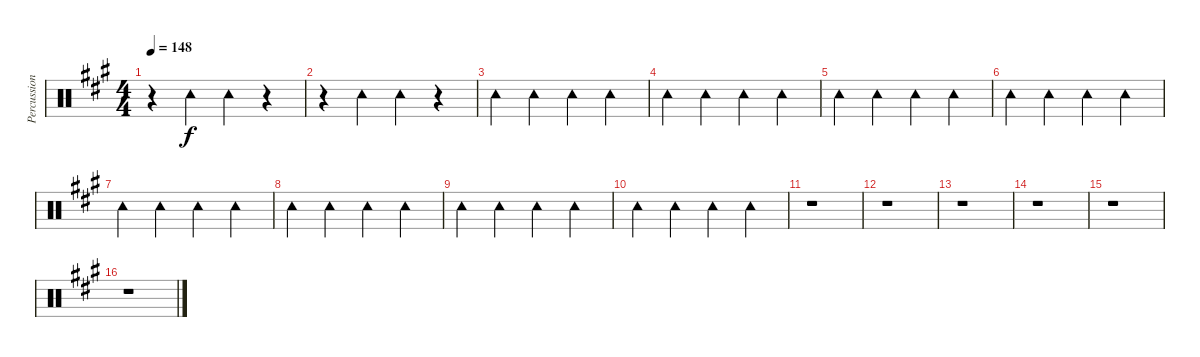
\track ("Percussion" "Percussion") {instrument percussion}
\staff {score}
\articulation defaults
\ts (4 4)
\tempo 148
\clef neutral
\ks a
r.4{dy f} "Tambourine (hit)".4 "Tambourine (hit)".4 r.4 |
r.4 "Tambourine (hit)".4 "Tambourine (hit)".4 r.4 |
"Tambourine (hit)".4 "Tambourine (hit)".4 "Tambourine (hit)".4 "Tambourine (hit)".4 |
"Tambourine (hit)".4 "Tambourine (hit)".4 "Tambourine (hit)".4 "Tambourine (hit)".4 |
"Tambourine (hit)".4 "Tambourine (hit)".4 "Tambourine (hit)".4 "Tambourine (hit)".4 |
"Tambourine (hit)".4 "Tambourine (hit)".4 "Tambourine (hit)".4 "Tambourine (hit)".4 |
"Tambourine (hit)".4 "Tambourine (hit)".4 "Tambourine (hit)".4 "Tambourine (hit)".4 |
"Tambourine (hit)".4 "Tambourine (hit)".4 "Tambourine (hit)".4 "Tambourine (hit)".4 |
"Tambourine (hit)".4 "Tambourine (hit)".4 "Tambourine (hit)".4 "Tambourine (hit)".4 |
"Tambourine (hit)".4 "Tambourine (hit)".4 "Tambourine (hit)".4 "Tambourine (hit)".4 |
r.1 |
r.1 |
r.1 |
r.1 |
r.1 |
r.1
